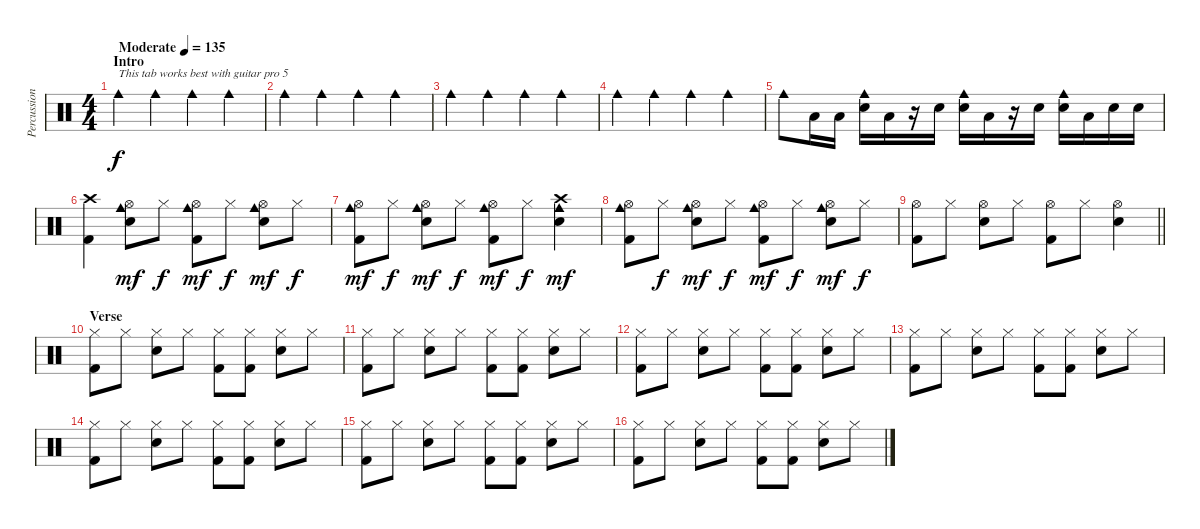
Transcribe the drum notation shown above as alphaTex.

\track ("Percussion" "Percussion") {instrument percussion}
\staff {score}
\articulation defaults
\ts (4 4)
\section ("" "Intro")
\tempo (135 "Moderate")
\clef neutral
\ks c "Cowbell medium (hit)".4{txt "This tab works best with guitar pro 5" dy f} "Cowbell medium (hit)".4 "Cowbell medium (hit)".4 "Cowbell medium (hit)".4
|
"Cowbell medium (hit)".4 "Cowbell medium (hit)".4 "Cowbell medium (hit)".4 "Cowbell medium (hit)".4 |
"Cowbell medium (hit)".4 "Cowbell medium (hit)".4 "Cowbell medium (hit)".4 "Cowbell medium (hit)".4 |
"Cowbell medium (hit)".4 "Cowbell medium (hit)".4 "Cowbell medium (hit)".4 "Cowbell medium (hit)".4 |
"Cowbell medium (hit)".8 "Low Floor Tom (hit)".16 "Low Floor Tom (hit)".16 ("Cowbell medium (hit)" "Electric Snare (hit)").16 "Low Floor Tom (hit)".16 r.16 "Electric Snare (hit)".16 ("Cowbell medium (hit)" "Electric Snare (hit)").16 "Low Floor Tom (hit)".16 r.16 "Electric Snare (hit)".16 ("Cowbell medium (hit)" "Electric Snare (hit)").16 "Low Floor Tom (hit)".16 "Electric Snare (hit)".16 "Electric Snare (hit)".16 |
("Crash high (hit)" "Kick (hit) 2").4 ("Hi-Hat (open)" "Cowbell medium (hit)" "Electric Snare (hit)").8{dy mf} "Hi-Hat (closed)".8{dy f} ("Hi-Hat (open)" "Cowbell medium (hit)" "Kick (hit) 2").8{dy mf} "Hi-Hat (closed)".8{dy f} ("Hi-Hat (open)" "Cowbell medium (hit)" "Electric Snare (hit)").8{dy mf} "Hi-Hat (closed)".8{dy f} |
("Hi-Hat (open)" "Cowbell medium (hit)" "Kick (hit) 2").8{dy mf} "Hi-Hat (closed)".8{dy f} ("Hi-Hat (open)" "Cowbell medium (hit)" "Electric Snare (hit)").8{dy mf} "Hi-Hat (closed)".8{dy f} ("Hi-Hat (open)" "Cowbell medium (hit)" "Kick (hit) 2").8{dy mf} "Hi-Hat (closed)".8{dy f} ("Crash high (hit)" "Cowbell medium (hit)" "Electric Snare (hit)").4{dy mf} |
("Hi-Hat (open)" "Cowbell medium (hit)" "Kick (hit) 2").8 "Hi-Hat (closed)".8{dy f} ("Hi-Hat (open)" "Cowbell medium (hit)" "Electric Snare (hit)").8{dy mf} "Hi-Hat (closed)".8{dy f} ("Hi-Hat (open)" "Cowbell medium (hit)" "Kick (hit) 2").8{dy mf} "Hi-Hat (closed)".8{dy f} ("Hi-Hat (open)" "Cowbell medium (hit)" "Electric Snare (hit)").8{dy mf} "Hi-Hat (closed)".8{dy f} |
\barLineRight lightlight
("Hi-Hat (open)" "Kick (hit) 2").8 "Hi-Hat (closed)".8 ("Hi-Hat (open)" "Electric Snare (hit)").8 "Hi-Hat (closed)".8 ("Hi-Hat (open)" "Kick (hit) 2").8 "Hi-Hat (closed)".8 ("Hi-Hat (open)" "Electric Snare (hit)").4 |
\section ("" "Verse")
("Hi-Hat (closed)" "Kick (hit) 2").8 "Hi-Hat (closed)".8 ("Hi-Hat (closed)" "Electric Snare (hit)").8 "Hi-Hat (closed)".8 ("Hi-Hat (closed)" "Kick (hit) 2").8 ("Hi-Hat (closed)" "Kick (hit) 2").8 ("Hi-Hat (closed)" "Electric Snare (hit)").8 "Hi-Hat (closed)".8 |
("Hi-Hat (closed)" "Kick (hit) 2").8 "Hi-Hat (closed)".8 ("Hi-Hat (closed)" "Electric Snare (hit)").8 "Hi-Hat (closed)".8 ("Hi-Hat (closed)" "Kick (hit) 2").8 ("Hi-Hat (closed)" "Kick (hit) 2").8 ("Hi-Hat (closed)" "Electric Snare (hit)").8 "Hi-Hat (closed)".8 |
("Hi-Hat (closed)" "Kick (hit) 2").8 "Hi-Hat (closed)".8 ("Hi-Hat (closed)" "Electric Snare (hit)").8 "Hi-Hat (closed)".8 ("Hi-Hat (closed)" "Kick (hit) 2").8 ("Hi-Hat (closed)" "Kick (hit) 2").8 ("Hi-Hat (closed)" "Electric Snare (hit)").8 "Hi-Hat (closed)".8 |
("Hi-Hat (closed)" "Kick (hit) 2").8 "Hi-Hat (closed)".8 ("Hi-Hat (closed)" "Electric Snare (hit)").8 "Hi-Hat (closed)".8 ("Hi-Hat (closed)" "Kick (hit) 2").8 ("Hi-Hat (closed)" "Kick (hit) 2").8 ("Hi-Hat (closed)" "Electric Snare (hit)").8 "Hi-Hat (closed)".8 |
("Hi-Hat (closed)" "Kick (hit) 2").8 "Hi-Hat (closed)".8 ("Hi-Hat (closed)" "Electric Snare (hit)").8 "Hi-Hat (closed)".8 ("Hi-Hat (closed)" "Kick (hit) 2").8 ("Hi-Hat (closed)" "Kick (hit) 2").8 ("Hi-Hat (closed)" "Electric Snare (hit)").8 "Hi-Hat (closed)".8 |
("Hi-Hat (closed)" "Kick (hit) 2").8 "Hi-Hat (closed)".8 ("Hi-Hat (closed)" "Electric Snare (hit)").8 "Hi-Hat (closed)".8 ("Hi-Hat (closed)" "Kick (hit) 2").8 ("Hi-Hat (closed)" "Kick (hit) 2").8 ("Hi-Hat (closed)" "Electric Snare (hit)").8 "Hi-Hat (closed)".8 |
("Hi-Hat (closed)" "Kick (hit) 2").8 "Hi-Hat (closed)".8 ("Hi-Hat (closed)" "Electric Snare (hit)").8 "Hi-Hat (closed)".8 ("Hi-Hat (closed)" "Kick (hit) 2").8 ("Hi-Hat (closed)" "Kick (hit) 2").8 ("Hi-Hat (closed)" "Electric Snare (hit)").8 "Hi-Hat (closed)".8
